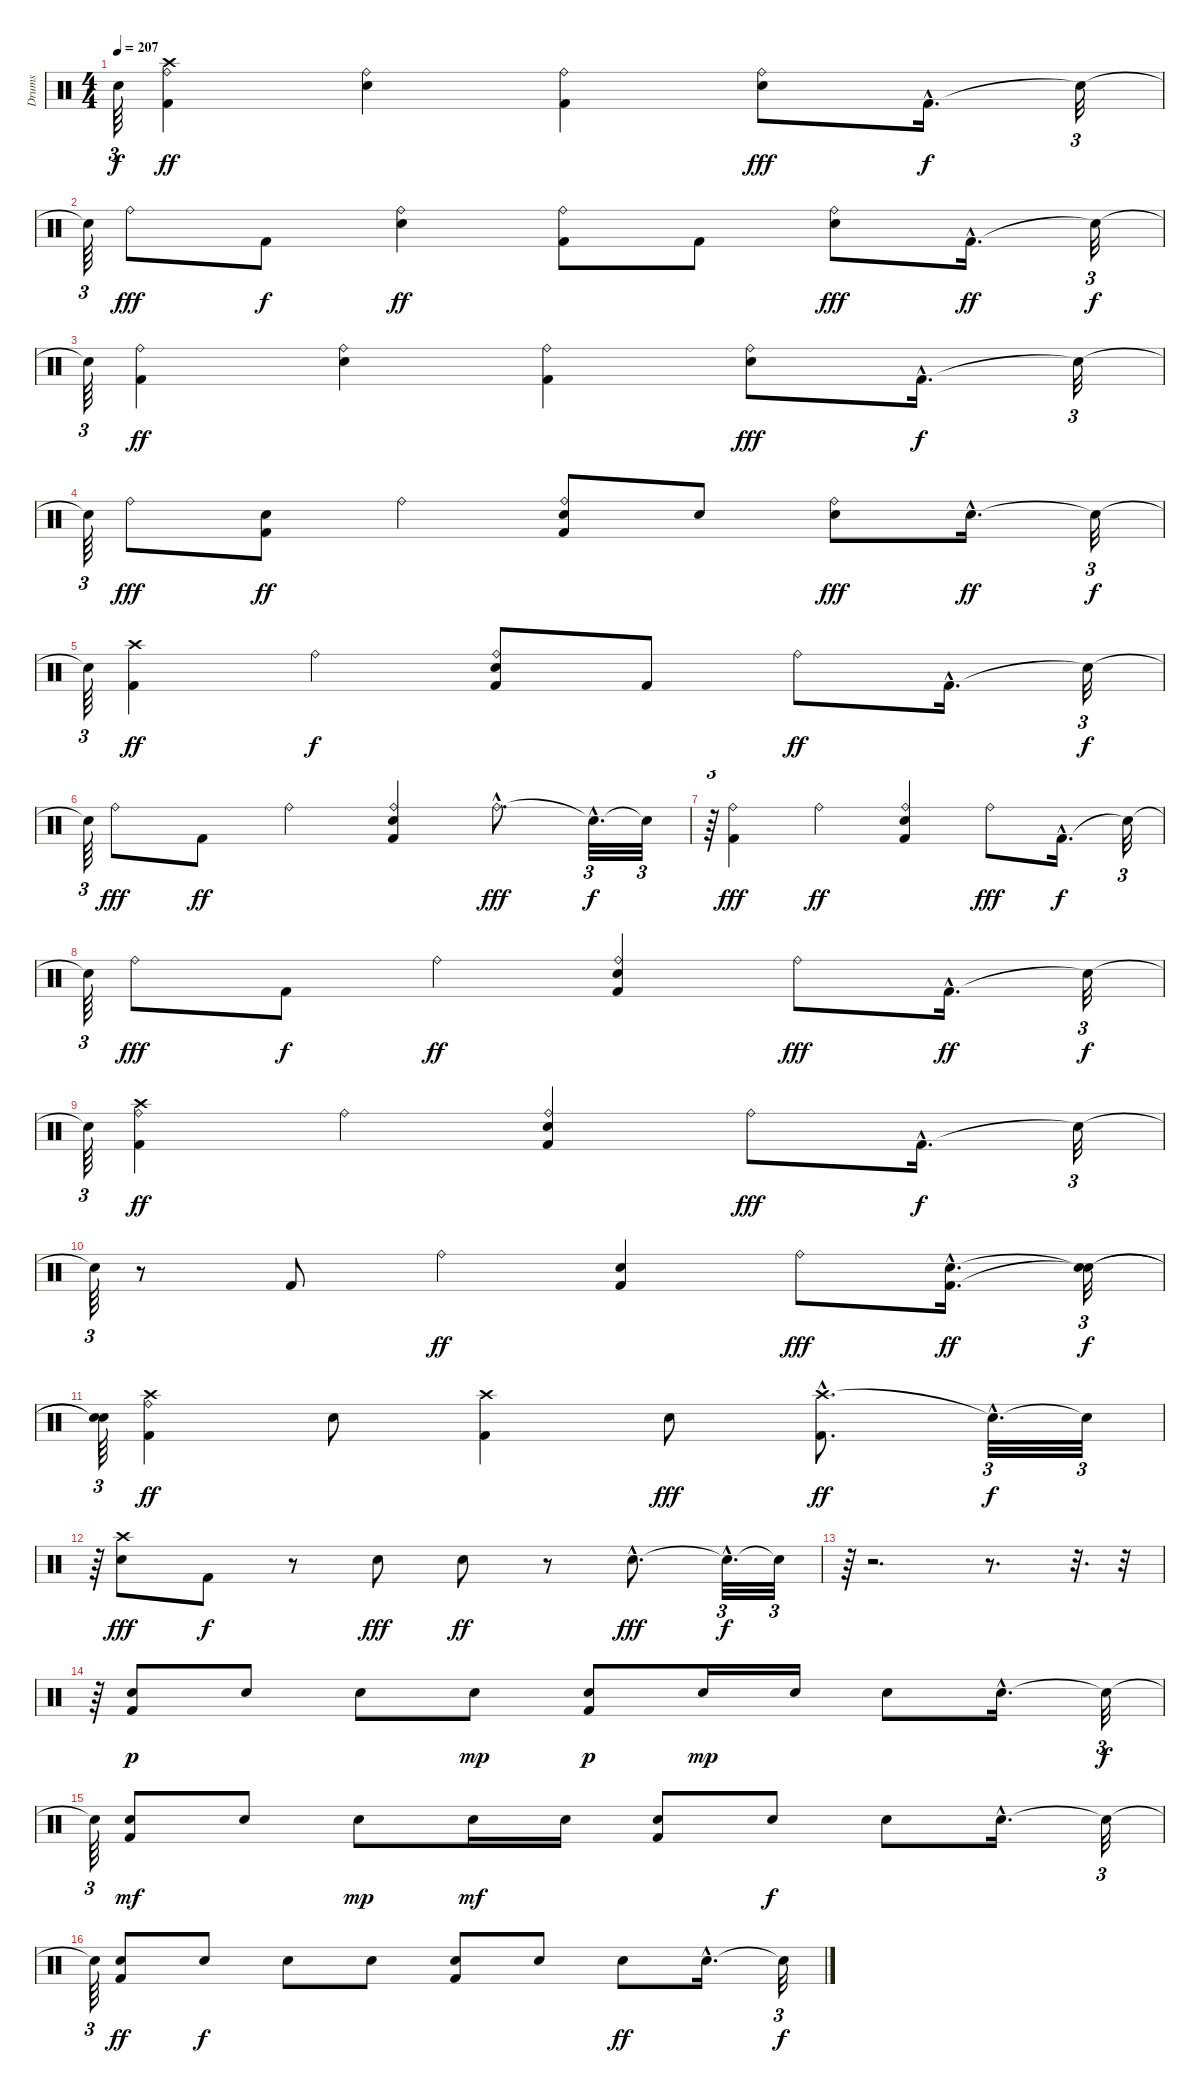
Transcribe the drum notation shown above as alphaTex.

\track ("Drums" "Drums") {instrument percussion}
\staff {score}
\articulation defaults
\ts (4 4)
\tempo 207
\clef neutral
\ks c "Snare (hit)"{t}.64{tu (3 2) dy f}
("Crash high (hit)" "Ride (bell)" "Kick (hit) 2").4{dy ff} ("Snare (hit) 2" "Ride (bell)").4 ("Kick (hit) 2" "Ride (bell)").4 ("Snare (hit) 2" "Ride (bell)").8{dy fff} "Kick (hit) 2"{hac}.16{d dy f} "Snare (hit)"{t}.32{tu (3 2)} |
"Snare (hit)"{t}.64{tu (3 2)} "Ride (bell)".8{dy fff} "Kick (hit) 2".8{dy f} ("Snare (hit) 2" "Ride (bell)").4{dy ff} ("Kick (hit) 2" "Ride (bell)").8 "Kick (hit) 2".8 ("Snare (hit) 2" "Ride (bell)").8{dy fff} "Kick (hit) 2"{hac}.16{d dy ff} "Snare (hit)"{t}.32{tu (3 2) dy f} |
"Snare (hit)"{t}.64{tu (3 2)} ("Ride (bell)" "Kick (hit) 2").4{dy ff} ("Snare (hit) 2" "Ride (bell)").4 ("Kick (hit) 2" "Ride (bell)").4 ("Snare (hit) 2" "Ride (bell)").8{dy fff} "Kick (hit) 2"{hac}.16{d dy f} "Snare (hit)"{t}.32{tu (3 2)} |
"Snare (hit)"{t}.64{tu (3 2)} "Ride (bell)".8{dy fff} ("Snare (hit) 2" "Kick (hit) 2").8{dy ff} "Ride (bell)".4 ("Snare (hit) 2" "Kick (hit) 2" "Ride (bell)").8 "Snare (hit) 2".8 ("Ride (bell)" "Snare (hit) 2").8{dy fff} "Snare (hit) 2"{hac}.16{d dy ff} "Snare (hit)"{t}.32{tu (3 2) dy f} |
"Snare (hit)"{t}.64{tu (3 2)} ("Crash high (hit)" "Kick (hit) 2").4{dy ff} "Ride (bell)".4{dy f} ("Snare (hit) 2" "Kick (hit) 2" "Ride (bell)").8 "Kick (hit) 2".8 "Ride (bell)".8{dy ff} "Kick (hit) 2"{hac}.16{d} "Snare (hit)"{t}.32{tu (3 2) dy f} |
"Snare (hit)"{t}.64{tu (3 2)} "Ride (bell)".8{dy fff} "Kick (hit) 2".8{dy ff} "Ride (bell)".4 ("Snare (hit) 2" "Kick (hit) 2" "Ride (bell)").4 "Ride (bell)"{hac}.8{d dy fff} "Snare (hit)"{hac t}.32{d tu (3 2) dy f} "Snare (hit)"{t}.32{tu (3 2)} |
r.64{tu (3 2)} ("Kick (hit) 2" "Ride (bell)").4{dy fff} "Ride (bell)".4{dy ff} ("Snare (hit) 2" "Kick (hit) 2" "Ride (bell)").4 "Ride (bell)".8{dy fff} "Kick (hit) 2"{hac}.16{d dy f} "Snare (hit)"{t}.32{tu (3 2)} |
"Snare (hit)"{t}.64{tu (3 2)} "Ride (bell)".8{dy fff} "Kick (hit) 2".8{dy f} "Ride (bell)".4{dy ff} ("Snare (hit) 2" "Kick (hit) 2" "Ride (bell)").4 "Ride (bell)".8{dy fff} "Kick (hit) 2"{hac}.16{d dy ff} "Snare (hit)"{t}.32{tu (3 2) dy f} |
"Snare (hit)"{t}.64{tu (3 2)} ("Crash high (hit)" "Ride (bell)" "Kick (hit) 2").4{dy ff} "Ride (bell)".4 ("Snare (hit) 2" "Kick (hit) 2" "Ride (bell)").4 "Ride (bell)".8{dy fff} "Kick (hit) 2"{hac}.16{d dy f} "Snare (hit)"{t}.32{tu (3 2)} |
"Snare (hit)"{t}.64{tu (3 2)} r.8 "Kick (hit) 2".8 "Ride (bell)".4{dy ff} ("Snare (hit) 2" "Kick (hit) 2").4 "Ride (bell)".8{dy fff} ("Snare (hit) 2"{hac} "Kick (hit) 2"{hac}).16{d dy ff} ("Snare (hit)"{t} "Snare (hit)"{t}).32{tu (3 2) dy f} |
("Snare (hit)"{t} "Snare (hit)"{t}).64{tu (3 2)} ("Crash high (hit)" "Ride (bell)" "Kick (hit) 2").4{dy ff} "Snare (hit) 2".8 ("Crash high (hit)" "Kick (hit) 2").4 "Snare (hit) 2".8{dy fff} ("Crash high (hit)"{hac} "Kick (hit) 2").8{d dy ff} "Snare (hit)"{hac t}.32{d tu (3 2) dy f} "Snare (hit)"{t}.32{tu (3 2)} |
r.64{tu (3 2)} ("Snare (hit) 2" "Crash high (hit)").8{dy fff} "Kick (hit) 2".8{dy f} r.8 "Snare (hit) 2".8{dy fff} "Snare (hit) 2".8{dy ff} r.8 "Snare (hit) 2"{hac}.8{d dy fff} "Snare (hit)"{hac t}.32{d tu (3 2) dy f} "Snare (hit)"{t}.32{tu (3 2)} |
r.64{tu (3 2)} r.2{d} r.8{d} r.32{d tu (3 2)} r.32{tu (3 2)} |
r.64{tu (3 2)} ("Kick (hit) 2" "Snare (hit) 2").8{dy p} "Snare (hit) 2".8 "Snare (hit) 2".8 "Snare (hit) 2".8{dy mp} ("Kick (hit) 2" "Snare (hit) 2").8{dy p} "Snare (hit) 2".16{dy mp} "Snare (hit) 2".16 "Snare (hit) 2".8 "Snare (hit) 2"{hac}.16{d} "Snare (hit)"{t}.32{tu (3 2) dy f} |
"Snare (hit)"{t}.64{tu (3 2)} ("Kick (hit) 2" "Snare (hit) 2").8{dy mf} "Snare (hit) 2".8 "Snare (hit) 2".8{dy mp} "Snare (hit) 2".16{dy mf} "Snare (hit) 2".16 ("Kick (hit) 2" "Snare (hit) 2").8 "Snare (hit) 2".8{dy f} "Snare (hit) 2".8 "Snare (hit) 2"{hac}.16{d} "Snare (hit)"{t}.32{tu (3 2)} |
"Snare (hit)"{t}.64{tu (3 2)} ("Snare (hit) 2" "Kick (hit) 2").8{dy ff} "Snare (hit) 2".8{dy f} "Snare (hit) 2".8 "Snare (hit) 2".8 ("Kick (hit) 2" "Snare (hit) 2").8 "Snare (hit) 2".8 "Snare (hit) 2".8{dy ff} "Snare (hit) 2"{hac}.16{d} "Snare (hit)"{t}.32{tu (3 2) dy f}
